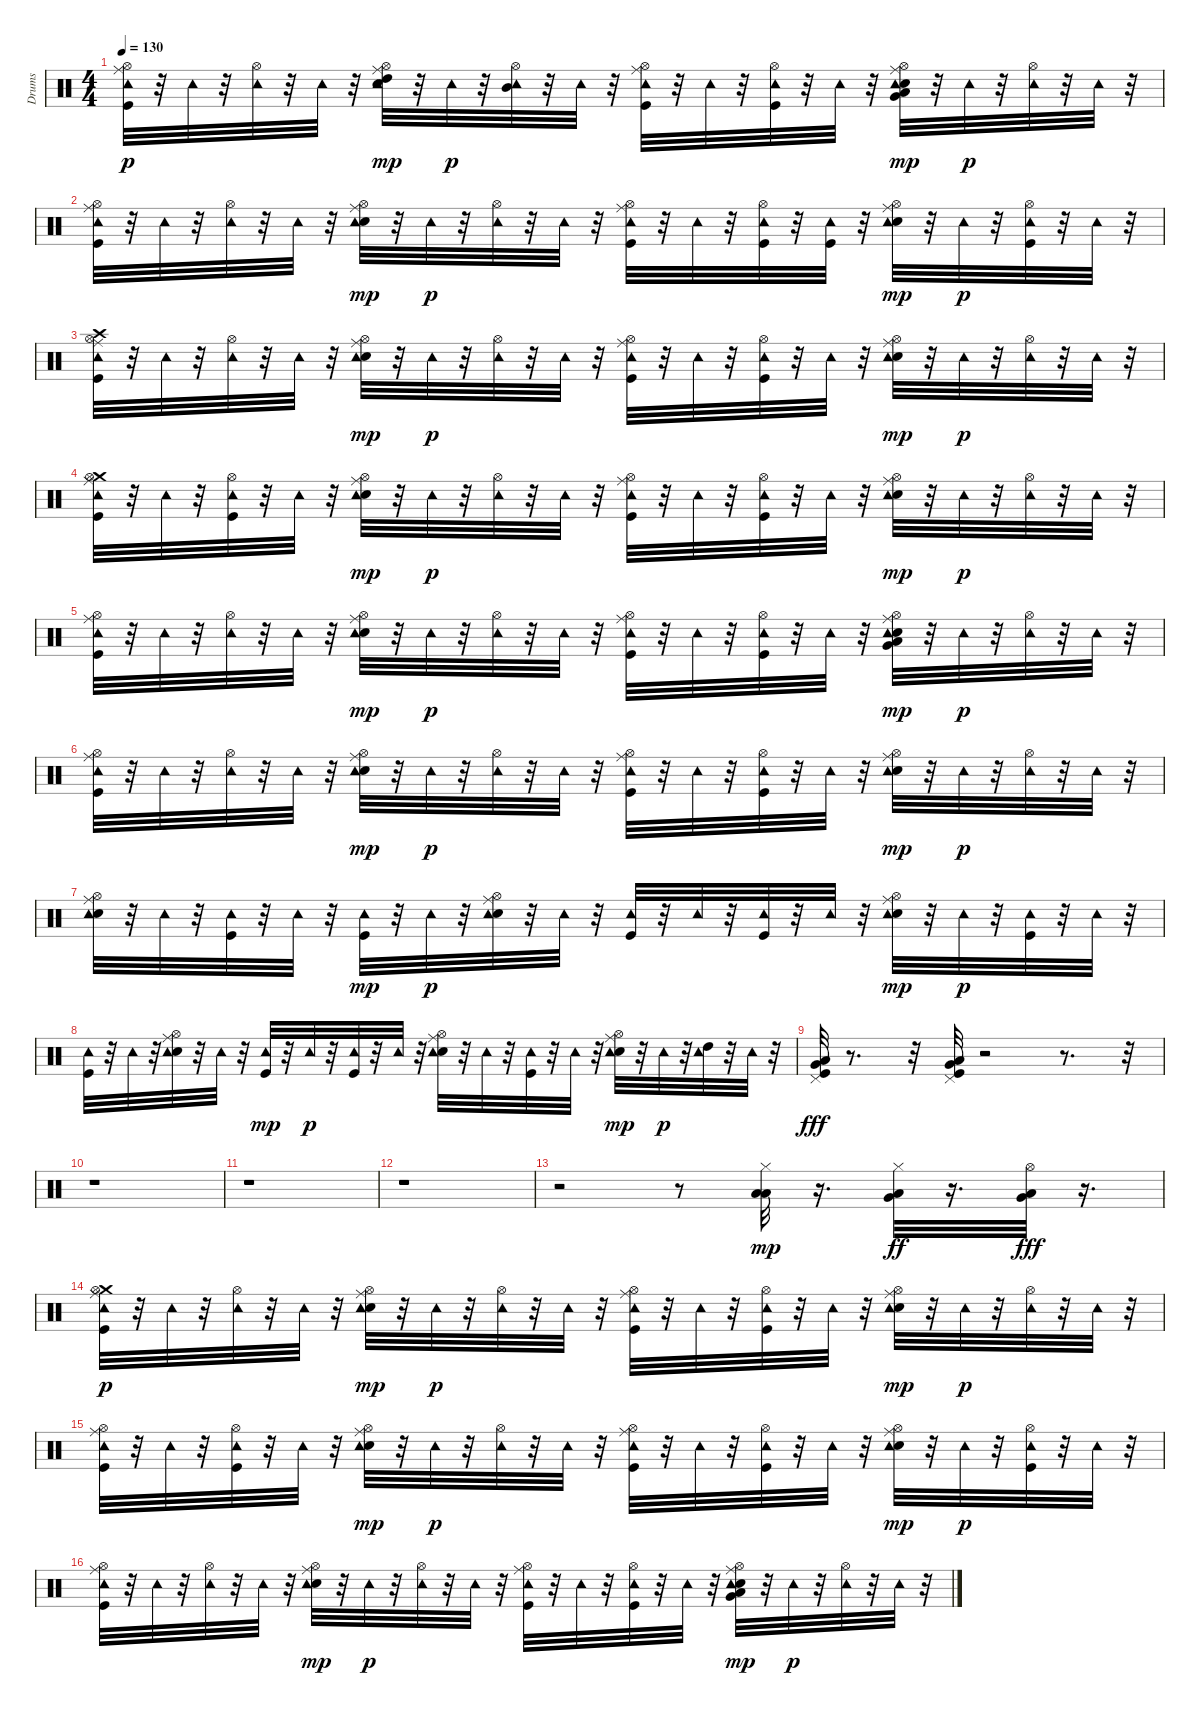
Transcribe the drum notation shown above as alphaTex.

\track ("Drums" "Drums") {instrument percussion}
\staff {score}
\articulation defaults
\ts (4 4)
\tempo 130
\clef neutral
\ks c
("Ride (middle)" "Kick (hit)" "Hi-Hat (open)" "Tambourine (hit)").32{dy p} r.32 "Tambourine (hit)".32 r.32 ("Hi-Hat (open)" "Tambourine (hit)").32 r.32 "Tambourine (hit)".32 r.32 ("High Tom (hit)" "Ride (middle)" "Electric Snare (hit)" "Hi-Hat (open)" "Tambourine (hit)").32{dy mp} r.32 "Tambourine (hit)".32{dy p} r.32 ("Mid Tom (hit)" "Hi-Hat (open)" "Tambourine (hit)").32 r.32 "Tambourine (hit)".32 r.32 ("Ride (middle)" "Kick (hit)" "Hi-Hat (open)" "Tambourine (hit)").32 r.32 "Tambourine (hit)".32 r.32 ("Kick (hit)" "Hi-Hat (open)" "Tambourine (hit)").32 r.32 "Tambourine (hit)".32 r.32 ("Very Low Tom (hit)" "Low Tom (hit)" "Ride (middle)" "Electric Snare (hit)" "Hi-Hat (open)" "Tambourine (hit)").32{dy mp} r.32 "Tambourine (hit)".32{dy p} r.32 ("Hi-Hat (open)" "Tambourine (hit)").32 r.32 "Tambourine (hit)".32 r.32 |
("Ride (middle)" "Kick (hit)" "Hi-Hat (open)" "Tambourine (hit)").32 r.32 "Tambourine (hit)".32 r.32 ("Hi-Hat (open)" "Tambourine (hit)").32 r.32 "Tambourine (hit)".32 r.32 ("Ride (middle)" "Electric Snare (hit)" "Hi-Hat (open)" "Tambourine (hit)").32{dy mp} r.32 "Tambourine (hit)".32{dy p} r.32 ("Hi-Hat (open)" "Tambourine (hit)").32 r.32 "Tambourine (hit)".32 r.32 ("Kick (hit)" "Ride (middle)" "Hi-Hat (open)" "Tambourine (hit)").32 r.32 "Tambourine (hit)".32 r.32 ("Hi-Hat (open)" "Kick (hit)" "Tambourine (hit)").32 r.32 ("Kick (hit)" "Tambourine (hit)").32 r.32 ("Ride (middle)" "Electric Snare (hit)" "Hi-Hat (open)" "Tambourine (hit)").32{dy mp} r.32 "Tambourine (hit)".32{dy p} r.32 ("Hi-Hat (open)" "Kick (hit)" "Tambourine (hit)").32 r.32 "Tambourine (hit)".32 r.32 |
("Crash high (hit)" "Ride (middle)" "Kick (hit)" "Hi-Hat (open)" "Tambourine (hit)").32 r.32 "Tambourine (hit)".32 r.32 ("Hi-Hat (open)" "Tambourine (hit)").32 r.32 "Tambourine (hit)".32 r.32 ("Ride (middle)" "Electric Snare (hit)" "Hi-Hat (open)" "Tambourine (hit)").32{dy mp} r.32 "Tambourine (hit)".32{dy p} r.32 ("Hi-Hat (open)" "Tambourine (hit)").32 r.32 "Tambourine (hit)".32 r.32 ("Ride (middle)" "Kick (hit)" "Hi-Hat (open)" "Tambourine (hit)").32 r.32 "Tambourine (hit)".32 r.32 ("Kick (hit)" "Hi-Hat (open)" "Tambourine (hit)").32 r.32 "Tambourine (hit)".32 r.32 ("Ride (middle)" "Electric Snare (hit)" "Hi-Hat (open)" "Tambourine (hit)").32{dy mp} r.32 "Tambourine (hit)".32{dy p} r.32 ("Hi-Hat (open)" "Tambourine (hit)").32 r.32 "Tambourine (hit)".32 r.32 |
("Crash medium (hit)" "Ride (middle)" "Kick (hit)" "Hi-Hat (open)" "Tambourine (hit)").32 r.32 "Tambourine (hit)".32 r.32 ("Hi-Hat (open)" "Kick (hit)" "Tambourine (hit)").32 r.32 "Tambourine (hit)".32 r.32 ("Ride (middle)" "Electric Snare (hit)" "Hi-Hat (open)" "Tambourine (hit)").32{dy mp} r.32 "Tambourine (hit)".32{dy p} r.32 ("Hi-Hat (open)" "Tambourine (hit)").32 r.32 "Tambourine (hit)".32 r.32 ("Ride (middle)" "Kick (hit)" "Hi-Hat (open)" "Tambourine (hit)").32 r.32 "Tambourine (hit)".32 r.32 ("Hi-Hat (open)" "Kick (hit)" "Tambourine (hit)").32 r.32 "Tambourine (hit)".32 r.32 ("Ride (middle)" "Electric Snare (hit)" "Hi-Hat (open)" "Tambourine (hit)").32{dy mp} r.32 "Tambourine (hit)".32{dy p} r.32 ("Hi-Hat (open)" "Tambourine (hit)").32 r.32 "Tambourine (hit)".32 r.32 |
("Ride (middle)" "Kick (hit)" "Hi-Hat (open)" "Tambourine (hit)").32 r.32 "Tambourine (hit)".32 r.32 ("Hi-Hat (open)" "Tambourine (hit)").32 r.32 "Tambourine (hit)".32 r.32 ("Ride (middle)" "Electric Snare (hit)" "Hi-Hat (open)" "Tambourine (hit)").32{dy mp} r.32 "Tambourine (hit)".32{dy p} r.32 ("Hi-Hat (open)" "Tambourine (hit)").32 r.32 "Tambourine (hit)".32 r.32 ("Ride (middle)" "Kick (hit)" "Hi-Hat (open)" "Tambourine (hit)").32 r.32 "Tambourine (hit)".32 r.32 ("Kick (hit)" "Hi-Hat (open)" "Tambourine (hit)").32 r.32 "Tambourine (hit)".32 r.32 ("Very Low Tom (hit)" "Low Tom (hit)" "Ride (middle)" "Electric Snare (hit)" "Hi-Hat (open)" "Tambourine (hit)").32{dy mp} r.32 "Tambourine (hit)".32{dy p} r.32 ("Hi-Hat (open)" "Tambourine (hit)").32 r.32 "Tambourine (hit)".32 r.32 |
("Ride (middle)" "Kick (hit)" "Hi-Hat (open)" "Tambourine (hit)").32 r.32 "Tambourine (hit)".32 r.32 ("Hi-Hat (open)" "Tambourine (hit)").32 r.32 "Tambourine (hit)".32 r.32 ("Ride (middle)" "Electric Snare (hit)" "Hi-Hat (open)" "Tambourine (hit)").32{dy mp} r.32 "Tambourine (hit)".32{dy p} r.32 ("Hi-Hat (open)" "Tambourine (hit)").32 r.32 "Tambourine (hit)".32 r.32 ("Kick (hit)" "Ride (middle)" "Hi-Hat (open)" "Tambourine (hit)").32 r.32 "Tambourine (hit)".32 r.32 ("Hi-Hat (open)" "Kick (hit)" "Tambourine (hit)").32 r.32 "Tambourine (hit)".32 r.32 ("Ride (middle)" "Electric Snare (hit)" "Hi-Hat (open)" "Tambourine (hit)").32{dy mp} r.32 "Tambourine (hit)".32{dy p} r.32 ("Hi-Hat (open)" "Tambourine (hit)").32 r.32 "Tambourine (hit)".32 r.32 |
("Electric Snare (hit)" "Ride (middle)" "Hi-Hat (open)" "Tambourine (hit)").32 r.32 "Tambourine (hit)".32 r.32 ("Kick (hit)" "Tambourine (hit)").32 r.32 "Tambourine (hit)".32 r.32 ("Kick (hit)" "Tambourine (hit)").32{dy mp} r.32 "Tambourine (hit)".32{dy p} r.32 ("Ride (middle)" "Electric Snare (hit)" "Hi-Hat (open)" "Tambourine (hit)").32 r.32 "Tambourine (hit)".32 r.32 ("Kick (hit)" "Tambourine (hit)").32 r.32 "Tambourine (hit)".32 r.32 ("Kick (hit)" "Tambourine (hit)").32 r.32 "Tambourine (hit)".32 r.32 ("Ride (middle)" "Electric Snare (hit)" "Hi-Hat (open)" "Tambourine (hit)").32{dy mp} r.32 "Tambourine (hit)".32{dy p} r.32 ("Kick (hit)" "Tambourine (hit)").32 r.32 "Tambourine (hit)".32 r.32 |
("Kick (hit)" "Tambourine (hit)").32 r.32 "Tambourine (hit)".32 r.32 ("Ride (middle)" "Electric Snare (hit)" "Hi-Hat (open)" "Tambourine (hit)").32 r.32 "Tambourine (hit)".32 r.32 ("Kick (hit)" "Tambourine (hit)").32{dy mp} r.32 "Tambourine (hit)".32{dy p} r.32 ("Kick (hit)" "Tambourine (hit)").32 r.32 "Tambourine (hit)".32 r.32 ("Electric Snare (hit)" "Ride (middle)" "Hi-Hat (open)" "Tambourine (hit)").32 r.32 "Tambourine (hit)".32 r.32 ("Kick (hit)" "Tambourine (hit)").32 r.32 "Tambourine (hit)".32 r.32 ("Ride (middle)" "Electric Snare (hit)" "Hi-Hat (open)" "Tambourine (hit)").32{dy mp} r.32 "Tambourine (hit)".32{dy p} r.32 ("High Tom (hit)" "Tambourine (hit)").32 r.32 "Tambourine (hit)".32 r.32 |
("Pedal Hi-Hat (hit)" "Low Floor Tom (hit)" "Very Low Tom (hit)" "Kick (hit)").32{dy fff} r.8{d} r.32 ("Pedal Hi-Hat (hit)" "Low Floor Tom (hit)" "Very Low Tom (hit)" "Kick (hit)").32 r.2 r.8{d} r.32 |
r.1 |
r.1 |
r.1 |
r.2 r.8 ("Low Tom (hit)" "Low Floor Tom (hit)" "Hi-Hat (closed)").32{dy mp} r.16{d} ("Low Floor Tom (hit)" "Very Low Tom (hit)" "Hi-Hat (closed)").32{dy ff} r.16{d} ("Low Floor Tom (hit)" "Very Low Tom (hit)" "Hi-Hat (open)").32{dy fff} r.16{d} |
("Ride (middle)" "Crash medium (hit)" "Kick (hit)" "Hi-Hat (open)" "Tambourine (hit)").32{dy p} r.32 "Tambourine (hit)".32 r.32 ("Hi-Hat (open)" "Tambourine (hit)").32 r.32 "Tambourine (hit)".32 r.32 ("Ride (middle)" "Electric Snare (hit)" "Hi-Hat (open)" "Tambourine (hit)").32{dy mp} r.32 "Tambourine (hit)".32{dy p} r.32 ("Hi-Hat (open)" "Tambourine (hit)").32 r.32 "Tambourine (hit)".32 r.32 ("Ride (middle)" "Kick (hit)" "Hi-Hat (open)" "Tambourine (hit)").32 r.32 "Tambourine (hit)".32 r.32 ("Kick (hit)" "Hi-Hat (open)" "Tambourine (hit)").32 r.32 "Tambourine (hit)".32 r.32 ("Ride (middle)" "Electric Snare (hit)" "Hi-Hat (open)" "Tambourine (hit)").32{dy mp} r.32 "Tambourine (hit)".32{dy p} r.32 ("Hi-Hat (open)" "Tambourine (hit)").32 r.32 "Tambourine (hit)".32 r.32 |
("Ride (middle)" "Kick (hit)" "Hi-Hat (open)" "Tambourine (hit)").32 r.32 "Tambourine (hit)".32 r.32 ("Hi-Hat (open)" "Kick (hit)" "Tambourine (hit)").32 r.32 "Tambourine (hit)".32 r.32 ("Ride (middle)" "Electric Snare (hit)" "Hi-Hat (open)" "Tambourine (hit)").32{dy mp} r.32 "Tambourine (hit)".32{dy p} r.32 ("Hi-Hat (open)" "Tambourine (hit)").32 r.32 "Tambourine (hit)".32 r.32 ("Ride (middle)" "Kick (hit)" "Hi-Hat (open)" "Tambourine (hit)").32 r.32 "Tambourine (hit)".32 r.32 ("Hi-Hat (open)" "Kick (hit)" "Tambourine (hit)").32 r.32 "Tambourine (hit)".32 r.32 ("Ride (middle)" "Electric Snare (hit)" "Hi-Hat (open)" "Tambourine (hit)").32{dy mp} r.32 "Tambourine (hit)".32{dy p} r.32 ("Hi-Hat (open)" "Kick (hit)" "Tambourine (hit)").32 r.32 "Tambourine (hit)".32 r.32 |
("Ride (middle)" "Kick (hit)" "Hi-Hat (open)" "Tambourine (hit)").32 r.32 "Tambourine (hit)".32 r.32 ("Hi-Hat (open)" "Tambourine (hit)").32 r.32 "Tambourine (hit)".32 r.32 ("Ride (middle)" "Electric Snare (hit)" "Hi-Hat (open)" "Tambourine (hit)").32{dy mp} r.32 "Tambourine (hit)".32{dy p} r.32 ("Hi-Hat (open)" "Tambourine (hit)").32 r.32 "Tambourine (hit)".32 r.32 ("Ride (middle)" "Kick (hit)" "Hi-Hat (open)" "Tambourine (hit)").32 r.32 "Tambourine (hit)".32 r.32 ("Kick (hit)" "Hi-Hat (open)" "Tambourine (hit)").32 r.32 "Tambourine (hit)".32 r.32 ("Very Low Tom (hit)" "Low Tom (hit)" "Ride (middle)" "Electric Snare (hit)" "Hi-Hat (open)" "Tambourine (hit)").32{dy mp} r.32 "Tambourine (hit)".32{dy p} r.32 ("Hi-Hat (open)" "Tambourine (hit)").32 r.32 "Tambourine (hit)".32 r.32
